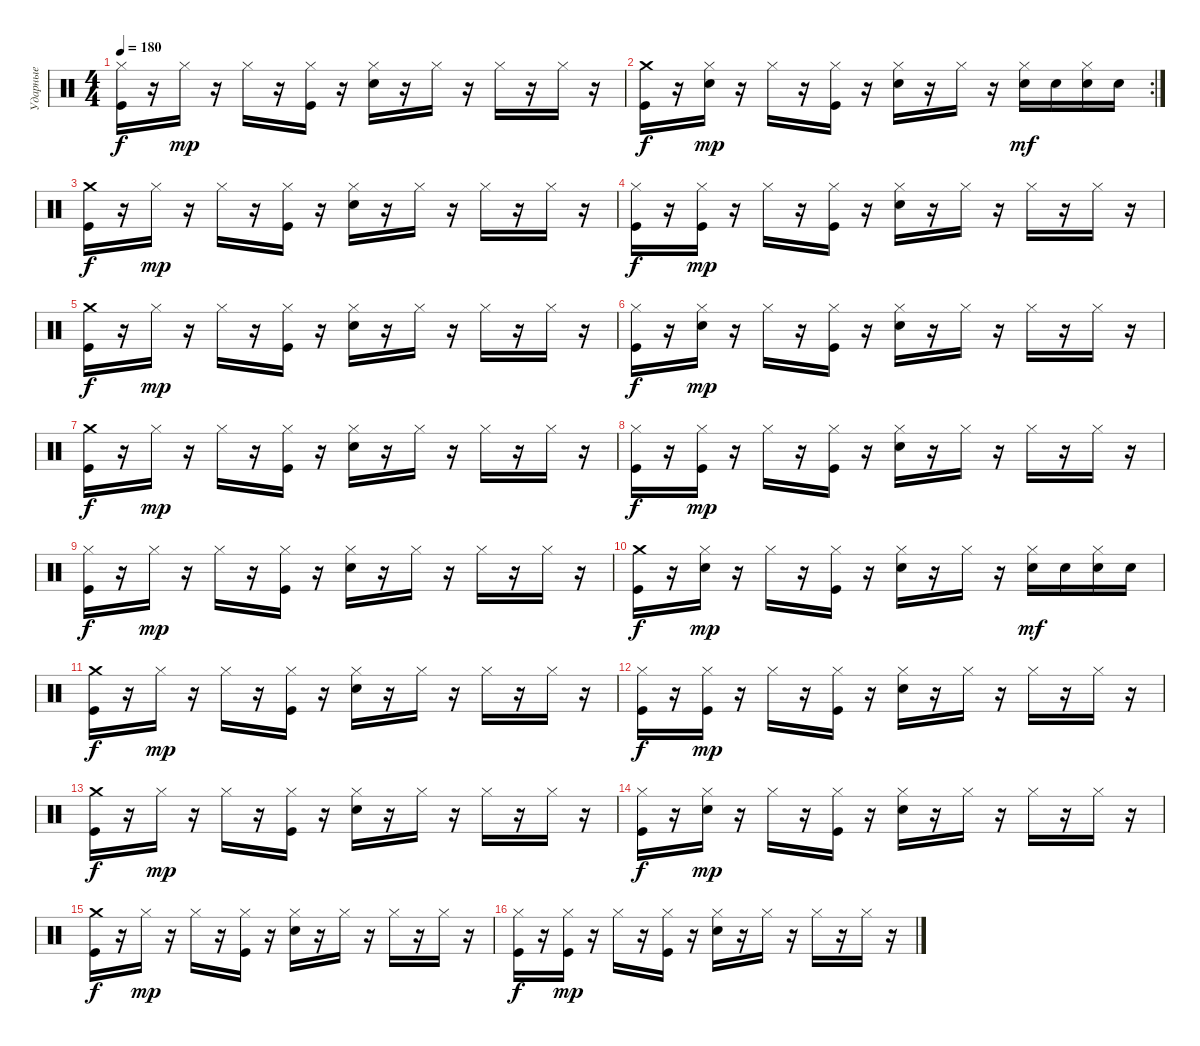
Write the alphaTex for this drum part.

\track ("Ударные" "Ударные") {instrument percussion}
\staff {score}
\articulation defaults
\ts (4 4)
\tempo 180
\clef neutral
\ks c
("Hi-Hat (closed)" "Kick (hit)").16{dy f} r.16 "Hi-Hat (closed)".16{dy mp} r.16 "Hi-Hat (closed)".16 r.16 ("Hi-Hat (closed)" "Kick (hit)").16 r.16 ("Hi-Hat (closed)" "Electric Snare (hit)").16 r.16 "Hi-Hat (closed)".16 r.16 "Hi-Hat (closed)".16 r.16 "Hi-Hat (closed)".16 r.16 |
\rc 2
("Crash medium (hit)" "Kick (hit)").16{dy f} r.16 ("Hi-Hat (closed)" "Electric Snare (hit)").16{dy mp} r.16 "Hi-Hat (closed)".16 r.16 ("Hi-Hat (closed)" "Kick (hit)").16 r.16 ("Hi-Hat (closed)" "Electric Snare (hit)").16 r.16 "Hi-Hat (closed)".16 r.16 ("Hi-Hat (closed)" "Electric Snare (hit)").16{dy mf} "Electric Snare (hit)".16 ("Hi-Hat (closed)" "Electric Snare (hit)").16 "Electric Snare (hit)".16 |
("Crash medium (hit)" "Kick (hit)").16{dy f} r.16 "Hi-Hat (closed)".16{dy mp} r.16 "Hi-Hat (closed)".16 r.16 ("Hi-Hat (closed)" "Kick (hit)").16 r.16 ("Hi-Hat (closed)" "Electric Snare (hit)").16 r.16 "Hi-Hat (closed)".16 r.16 "Hi-Hat (closed)".16 r.16 "Hi-Hat (closed)".16 r.16 |
("Hi-Hat (closed)" "Kick (hit)").16{dy f} r.16 ("Hi-Hat (closed)" "Kick (hit)").16{dy mp} r.16 "Hi-Hat (closed)".16 r.16 ("Hi-Hat (closed)" "Kick (hit)").16 r.16 ("Hi-Hat (closed)" "Electric Snare (hit)").16 r.16 "Hi-Hat (closed)".16 r.16 "Hi-Hat (closed)".16 r.16 "Hi-Hat (closed)".16 r.16 |
("Crash medium (hit)" "Kick (hit)").16{dy f} r.16 "Hi-Hat (closed)".16{dy mp} r.16 "Hi-Hat (closed)".16 r.16 ("Hi-Hat (closed)" "Kick (hit)").16 r.16 ("Hi-Hat (closed)" "Electric Snare (hit)").16 r.16 "Hi-Hat (closed)".16 r.16 "Hi-Hat (closed)".16 r.16 "Hi-Hat (closed)".16 r.16 |
("Hi-Hat (closed)" "Kick (hit)").16{dy f} r.16 ("Hi-Hat (closed)" "Electric Snare (hit)").16{dy mp} r.16 "Hi-Hat (closed)".16 r.16 ("Hi-Hat (closed)" "Kick (hit)").16 r.16 ("Hi-Hat (closed)" "Electric Snare (hit)").16 r.16 "Hi-Hat (closed)".16 r.16 "Hi-Hat (closed)".16 r.16 "Hi-Hat (closed)".16 r.16 |
("Crash medium (hit)" "Kick (hit)").16{dy f} r.16 "Hi-Hat (closed)".16{dy mp} r.16 "Hi-Hat (closed)".16 r.16 ("Hi-Hat (closed)" "Kick (hit)").16 r.16 ("Hi-Hat (closed)" "Electric Snare (hit)").16 r.16 "Hi-Hat (closed)".16 r.16 "Hi-Hat (closed)".16 r.16 "Hi-Hat (closed)".16 r.16 |
("Hi-Hat (closed)" "Kick (hit)").16{dy f} r.16 ("Hi-Hat (closed)" "Kick (hit)").16{dy mp} r.16 "Hi-Hat (closed)".16 r.16 ("Hi-Hat (closed)" "Kick (hit)").16 r.16 ("Hi-Hat (closed)" "Electric Snare (hit)").16 r.16 "Hi-Hat (closed)".16 r.16 "Hi-Hat (closed)".16 r.16 "Hi-Hat (closed)".16 r.16 |
("Hi-Hat (closed)" "Kick (hit)").16{dy f} r.16 "Hi-Hat (closed)".16{dy mp} r.16 "Hi-Hat (closed)".16 r.16 ("Hi-Hat (closed)" "Kick (hit)").16 r.16 ("Hi-Hat (closed)" "Electric Snare (hit)").16 r.16 "Hi-Hat (closed)".16 r.16 "Hi-Hat (closed)".16 r.16 "Hi-Hat (closed)".16 r.16 |
("Crash medium (hit)" "Kick (hit)").16{dy f} r.16 ("Hi-Hat (closed)" "Electric Snare (hit)").16{dy mp} r.16 "Hi-Hat (closed)".16 r.16 ("Hi-Hat (closed)" "Kick (hit)").16 r.16 ("Hi-Hat (closed)" "Electric Snare (hit)").16 r.16 "Hi-Hat (closed)".16 r.16 ("Hi-Hat (closed)" "Electric Snare (hit)").16{dy mf} "Electric Snare (hit)".16 ("Hi-Hat (closed)" "Electric Snare (hit)").16 "Electric Snare (hit)".16 |
("Crash medium (hit)" "Kick (hit)").16{dy f} r.16 "Hi-Hat (closed)".16{dy mp} r.16 "Hi-Hat (closed)".16 r.16 ("Hi-Hat (closed)" "Kick (hit)").16 r.16 ("Hi-Hat (closed)" "Electric Snare (hit)").16 r.16 "Hi-Hat (closed)".16 r.16 "Hi-Hat (closed)".16 r.16 "Hi-Hat (closed)".16 r.16 |
("Hi-Hat (closed)" "Kick (hit)").16{dy f} r.16 ("Hi-Hat (closed)" "Kick (hit)").16{dy mp} r.16 "Hi-Hat (closed)".16 r.16 ("Hi-Hat (closed)" "Kick (hit)").16 r.16 ("Hi-Hat (closed)" "Electric Snare (hit)").16 r.16 "Hi-Hat (closed)".16 r.16 "Hi-Hat (closed)".16 r.16 "Hi-Hat (closed)".16 r.16 |
("Crash medium (hit)" "Kick (hit)").16{dy f} r.16 "Hi-Hat (closed)".16{dy mp} r.16 "Hi-Hat (closed)".16 r.16 ("Hi-Hat (closed)" "Kick (hit)").16 r.16 ("Hi-Hat (closed)" "Electric Snare (hit)").16 r.16 "Hi-Hat (closed)".16 r.16 "Hi-Hat (closed)".16 r.16 "Hi-Hat (closed)".16 r.16 |
("Hi-Hat (closed)" "Kick (hit)").16{dy f} r.16 ("Hi-Hat (closed)" "Electric Snare (hit)").16{dy mp} r.16 "Hi-Hat (closed)".16 r.16 ("Hi-Hat (closed)" "Kick (hit)").16 r.16 ("Hi-Hat (closed)" "Electric Snare (hit)").16 r.16 "Hi-Hat (closed)".16 r.16 "Hi-Hat (closed)".16 r.16 "Hi-Hat (closed)".16 r.16 |
("Crash medium (hit)" "Kick (hit)").16{dy f} r.16 "Hi-Hat (closed)".16{dy mp} r.16 "Hi-Hat (closed)".16 r.16 ("Hi-Hat (closed)" "Kick (hit)").16 r.16 ("Hi-Hat (closed)" "Electric Snare (hit)").16 r.16 "Hi-Hat (closed)".16 r.16 "Hi-Hat (closed)".16 r.16 "Hi-Hat (closed)".16 r.16 |
("Hi-Hat (closed)" "Kick (hit)").16{dy f} r.16 ("Hi-Hat (closed)" "Kick (hit)").16{dy mp} r.16 "Hi-Hat (closed)".16 r.16 ("Hi-Hat (closed)" "Kick (hit)").16 r.16 ("Hi-Hat (closed)" "Electric Snare (hit)").16 r.16 "Hi-Hat (closed)".16 r.16 "Hi-Hat (closed)".16 r.16 "Hi-Hat (closed)".16 r.16
